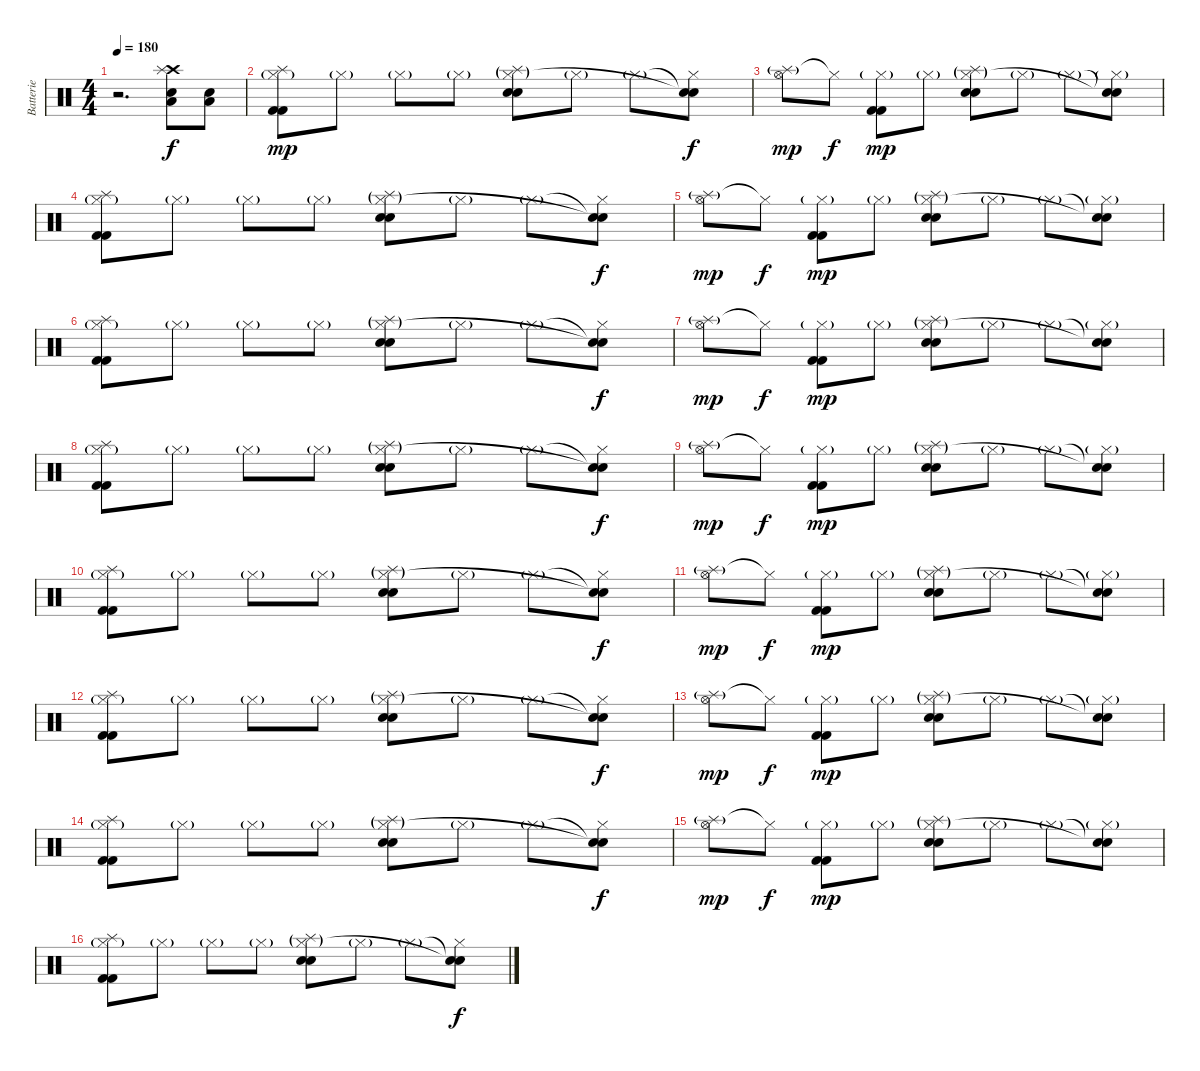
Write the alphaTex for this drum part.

\track ("Batterie" "Batterie") {instrument percussion}
\staff {score}
\articulation defaults
\ts (4 4)
\tempo 180
\clef neutral
\ks c
r.2{d dy f} ("Crash high (hit)" "Electric Snare (hit)" "Splash (hit)" "Low Tom (hit)").8 ("Electric Snare (hit)" "Low Tom (hit)").8 |
("Splash (hit)" "Hi-Hat (closed)"{g} "Kick (hit) 2" "Kick (hit) 2").8{dy mp} "Hi-Hat (closed)"{g}.8 "Hi-Hat (closed)"{g}.8 "Hi-Hat (closed)"{g}.8 ("Splash (hit)"{g} "Hi-Hat (closed)"{g} "Electric Snare (hit)" "Snare (hit) 2").8 "Hi-Hat (closed)"{g}.8 "Hi-Hat (closed)"{g}.8 ("Snare (hit)"{t} "Snare (hit)"{t} "Hi-Hat (closed)").8{dy f} |
("Splash (hit)"{g} "Hi-Hat (open)").8{dy mp} "Hi-Hat (closed)"{t}.8{dy f} ("Hi-Hat (closed)"{g} "Kick (hit) 2" "Kick (hit) 2").8{dy mp} "Hi-Hat (closed)"{g}.8 ("Splash (hit)"{g} "Hi-Hat (closed)"{g} "Electric Snare (hit)" "Snare (hit) 2").8 "Hi-Hat (closed)"{g}.8 "Hi-Hat (closed)"{g}.8 ("Snare (hit)"{t} "Snare (hit)"{t} "Hi-Hat (closed)"{g}).8 |
("Splash (hit)" "Hi-Hat (closed)"{g} "Kick (hit) 2" "Kick (hit) 2").8 "Hi-Hat (closed)"{g}.8 "Hi-Hat (closed)"{g}.8 "Hi-Hat (closed)"{g}.8 ("Splash (hit)"{g} "Hi-Hat (closed)"{g} "Electric Snare (hit)" "Snare (hit) 2").8 "Hi-Hat (closed)"{g}.8 "Hi-Hat (closed)"{g}.8 ("Snare (hit)"{t} "Snare (hit)"{t} "Hi-Hat (closed)").8{dy f} |
("Splash (hit)"{g} "Hi-Hat (open)").8{dy mp} "Hi-Hat (closed)"{t}.8{dy f} ("Hi-Hat (closed)"{g} "Kick (hit) 2" "Kick (hit) 2").8{dy mp} "Hi-Hat (closed)"{g}.8 ("Splash (hit)"{g} "Hi-Hat (closed)"{g} "Electric Snare (hit)" "Snare (hit) 2").8 "Hi-Hat (closed)"{g}.8 "Hi-Hat (closed)"{g}.8 ("Snare (hit)"{t} "Snare (hit)"{t} "Hi-Hat (closed)"{g}).8 |
("Splash (hit)" "Hi-Hat (closed)"{g} "Kick (hit) 2" "Kick (hit) 2").8 "Hi-Hat (closed)"{g}.8 "Hi-Hat (closed)"{g}.8 "Hi-Hat (closed)"{g}.8 ("Splash (hit)"{g} "Hi-Hat (closed)"{g} "Electric Snare (hit)" "Snare (hit) 2").8 "Hi-Hat (closed)"{g}.8 "Hi-Hat (closed)"{g}.8 ("Snare (hit)"{t} "Snare (hit)"{t} "Hi-Hat (closed)").8{dy f} |
("Splash (hit)"{g} "Hi-Hat (open)").8{dy mp} "Hi-Hat (closed)"{t}.8{dy f} ("Hi-Hat (closed)"{g} "Kick (hit) 2" "Kick (hit) 2").8{dy mp} "Hi-Hat (closed)"{g}.8 ("Splash (hit)"{g} "Hi-Hat (closed)"{g} "Electric Snare (hit)" "Snare (hit) 2").8 "Hi-Hat (closed)"{g}.8 "Hi-Hat (closed)"{g}.8 ("Snare (hit)"{t} "Snare (hit)"{t} "Hi-Hat (closed)"{g}).8 |
("Splash (hit)" "Hi-Hat (closed)"{g} "Kick (hit) 2" "Kick (hit) 2").8 "Hi-Hat (closed)"{g}.8 "Hi-Hat (closed)"{g}.8 "Hi-Hat (closed)"{g}.8 ("Splash (hit)"{g} "Hi-Hat (closed)"{g} "Electric Snare (hit)" "Snare (hit) 2").8 "Hi-Hat (closed)"{g}.8 "Hi-Hat (closed)"{g}.8 ("Snare (hit)"{t} "Snare (hit)"{t} "Hi-Hat (closed)").8{dy f} |
("Splash (hit)"{g} "Hi-Hat (open)").8{dy mp} "Hi-Hat (closed)"{t}.8{dy f} ("Hi-Hat (closed)"{g} "Kick (hit) 2" "Kick (hit) 2").8{dy mp} "Hi-Hat (closed)"{g}.8 ("Splash (hit)"{g} "Hi-Hat (closed)"{g} "Electric Snare (hit)" "Snare (hit) 2").8 "Hi-Hat (closed)"{g}.8 "Hi-Hat (closed)"{g}.8 ("Snare (hit)"{t} "Snare (hit)"{t} "Hi-Hat (closed)"{g}).8 |
("Splash (hit)" "Hi-Hat (closed)"{g} "Kick (hit) 2" "Kick (hit) 2").8 "Hi-Hat (closed)"{g}.8 "Hi-Hat (closed)"{g}.8 "Hi-Hat (closed)"{g}.8 ("Splash (hit)"{g} "Hi-Hat (closed)"{g} "Electric Snare (hit)" "Snare (hit) 2").8 "Hi-Hat (closed)"{g}.8 "Hi-Hat (closed)"{g}.8 ("Snare (hit)"{t} "Snare (hit)"{t} "Hi-Hat (closed)").8{dy f} |
("Splash (hit)"{g} "Hi-Hat (open)").8{dy mp} "Hi-Hat (closed)"{t}.8{dy f} ("Hi-Hat (closed)"{g} "Kick (hit) 2" "Kick (hit) 2").8{dy mp} "Hi-Hat (closed)"{g}.8 ("Splash (hit)"{g} "Hi-Hat (closed)"{g} "Electric Snare (hit)" "Snare (hit) 2").8 "Hi-Hat (closed)"{g}.8 "Hi-Hat (closed)"{g}.8 ("Snare (hit)"{t} "Snare (hit)"{t} "Hi-Hat (closed)"{g}).8 |
("Splash (hit)" "Hi-Hat (closed)"{g} "Kick (hit) 2" "Kick (hit) 2").8 "Hi-Hat (closed)"{g}.8 "Hi-Hat (closed)"{g}.8 "Hi-Hat (closed)"{g}.8 ("Splash (hit)"{g} "Hi-Hat (closed)"{g} "Electric Snare (hit)" "Snare (hit) 2").8 "Hi-Hat (closed)"{g}.8 "Hi-Hat (closed)"{g}.8 ("Snare (hit)"{t} "Snare (hit)"{t} "Hi-Hat (closed)").8{dy f} |
("Splash (hit)"{g} "Hi-Hat (open)").8{dy mp} "Hi-Hat (closed)"{t}.8{dy f} ("Hi-Hat (closed)"{g} "Kick (hit) 2" "Kick (hit) 2").8{dy mp} "Hi-Hat (closed)"{g}.8 ("Splash (hit)"{g} "Hi-Hat (closed)"{g} "Electric Snare (hit)" "Snare (hit) 2").8 "Hi-Hat (closed)"{g}.8 "Hi-Hat (closed)"{g}.8 ("Snare (hit)"{t} "Snare (hit)"{t} "Hi-Hat (closed)"{g}).8 |
("Splash (hit)" "Hi-Hat (closed)"{g} "Kick (hit) 2" "Kick (hit) 2").8 "Hi-Hat (closed)"{g}.8 "Hi-Hat (closed)"{g}.8 "Hi-Hat (closed)"{g}.8 ("Splash (hit)"{g} "Hi-Hat (closed)"{g} "Electric Snare (hit)" "Snare (hit) 2").8 "Hi-Hat (closed)"{g}.8 "Hi-Hat (closed)"{g}.8 ("Snare (hit)"{t} "Snare (hit)"{t} "Hi-Hat (closed)").8{dy f} |
("Splash (hit)"{g} "Hi-Hat (open)").8{dy mp} "Hi-Hat (closed)"{t}.8{dy f} ("Hi-Hat (closed)"{g} "Kick (hit) 2" "Kick (hit) 2").8{dy mp} "Hi-Hat (closed)"{g}.8 ("Splash (hit)"{g} "Hi-Hat (closed)"{g} "Electric Snare (hit)" "Snare (hit) 2").8 "Hi-Hat (closed)"{g}.8 "Hi-Hat (closed)"{g}.8 ("Snare (hit)"{t} "Snare (hit)"{t} "Hi-Hat (closed)"{g}).8 |
("Splash (hit)" "Hi-Hat (closed)"{g} "Kick (hit) 2" "Kick (hit) 2").8 "Hi-Hat (closed)"{g}.8 "Hi-Hat (closed)"{g}.8 "Hi-Hat (closed)"{g}.8 ("Splash (hit)"{g} "Hi-Hat (closed)"{g} "Electric Snare (hit)" "Snare (hit) 2").8 "Hi-Hat (closed)"{g}.8 "Hi-Hat (closed)"{g}.8 ("Snare (hit)"{t} "Snare (hit)"{t} "Hi-Hat (closed)").8{dy f}
